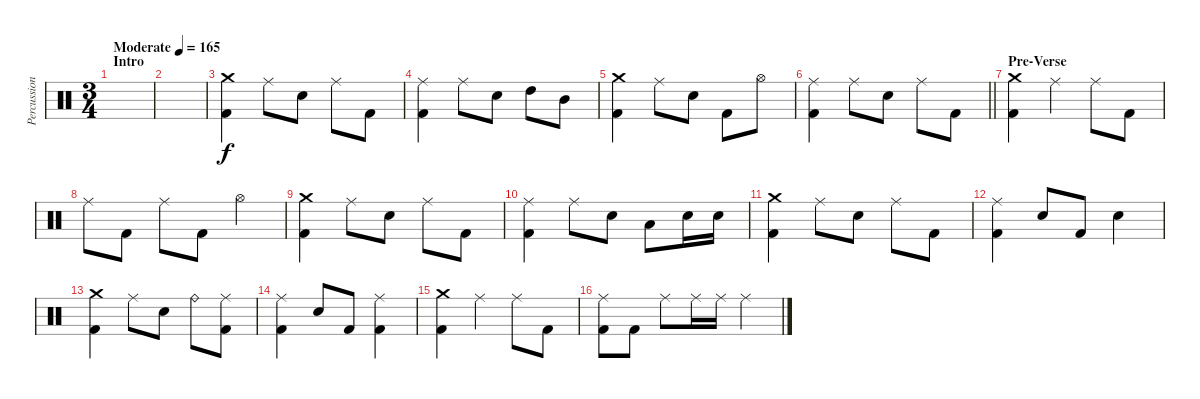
\track ("Percussion" "Percussion") {instrument percussion}
\staff {score}
\articulation defaults
\ts (3 4)
\section ("" "Intro")
\tempo (165 "Moderate")
\clef neutral
\ks c
|
|
("Crash medium (hit)" "Kick (hit) 2").4 "Ride (middle)".8 "Snare (hit) 2".8 "Ride (middle)".8 "Kick (hit) 2".8 |
("Ride (middle)" "Kick (hit) 2").4 "Ride (middle)".8 "Snare (hit) 2".8 "High Tom (hit)".8 "Mid Tom (hit)".8 |
("Crash medium (hit)" "Kick (hit) 2").4 "Ride (middle)".8 "Snare (hit) 2".8 "Kick (hit) 2".8 "Hi-Hat (open)".8 |
\barLineRight lightlight
("Ride (middle)" "Kick (hit) 2").4 "Ride (middle)".8 "Snare (hit) 2".8 "Ride (middle)".8 "Kick (hit) 2".8 |
\section ("" "Pre-Verse")
("Crash medium (hit)" "Kick (hit) 2").4 "Ride (middle)".4 "Ride (middle)".8 "Kick (hit) 2".8 |
"Ride (middle)".8 "Kick (hit) 2".8 "Ride (middle)".8 "Kick (hit) 2".8 "Hi-Hat (open)".4 |
("Crash medium (hit)" "Kick (hit) 2").4 "Ride (middle)".8 "Snare (hit) 2".8 "Ride (middle)".8 "Kick (hit) 2".8 |
("Ride (middle)" "Kick (hit) 2").4 "Ride (middle)".8 "Snare (hit) 2".8 "Low Tom (hit)".8 "Snare (hit) 2".16 "Snare (hit) 2".16 |
("Crash medium (hit)" "Kick (hit) 2").4 "Ride (middle)".8 "Snare (hit) 2".8 "Ride (middle)".8 "Kick (hit) 2".8 |
("Ride (middle)" "Kick (hit) 2").4 "Snare (hit) 2".8 "Kick (hit) 2".8 "Snare (hit) 2".4 |
("Crash medium (hit)" "Kick (hit) 2").4 "Ride (middle)".8 "Snare (hit) 2".8 "Ride (bell)".8 ("Ride (middle)" "Kick (hit) 2").8 |
("Ride (middle)" "Kick (hit) 2").4 "Snare (hit) 2".8 "Kick (hit) 2".8 ("Ride (middle)" "Kick (hit) 2").4 |
("Crash medium (hit)" "Kick (hit) 2").4 "Ride (middle)".4 "Ride (middle)".8 "Kick (hit) 2".8 |
("Ride (middle)" "Kick (hit) 2").8 "Kick (hit) 2".8 "Ride (middle)".8 "Ride (middle)".16 "Ride (middle)".16 "Ride (middle)".4
